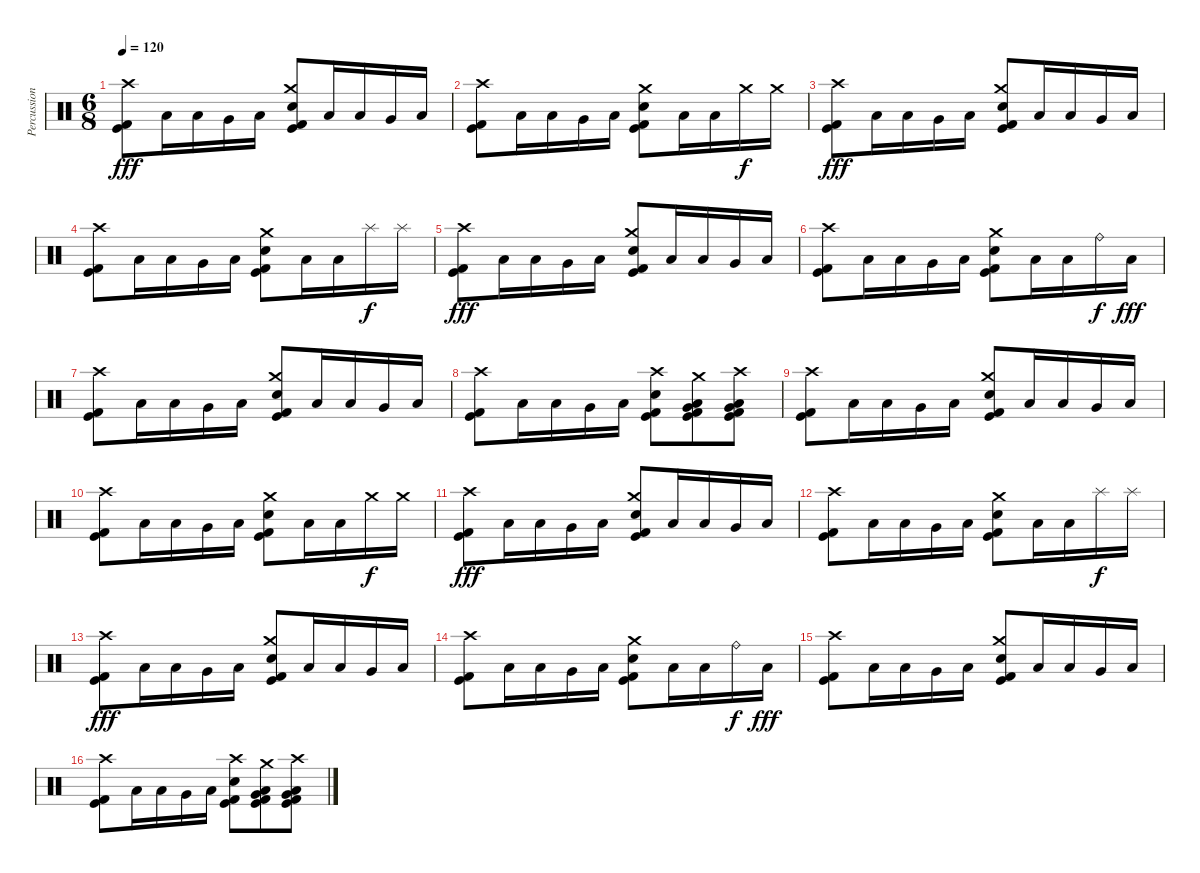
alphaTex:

\track ("Percussion" "Percussion") {instrument percussion}
\staff {score}
\articulation defaults
\ts (6 8)
\tempo 120
\clef neutral
\ks c
("Crash high (hit)" "Kick (hit)" "Kick (hit) 2").8{dy fff} "Low Tom (hit)".16 "Low Tom (hit)".16 "Very Low Tom (hit)".16 "Low Floor Tom (hit)".16 ("Crash medium (hit)" "Electric Snare (hit)" "Kick (hit)" "Kick (hit) 2").8 "Low Tom (hit)".16 "Low Tom (hit)".16 "Very Low Tom (hit)".16 "Low Floor Tom (hit)".16 |
("Crash high (hit)" "Kick (hit)" "Kick (hit) 2").8 "Low Tom (hit)".16 "Low Tom (hit)".16 "Very Low Tom (hit)".16 "Low Floor Tom (hit)".16 ("Crash medium (hit)" "Electric Snare (hit)" "Kick (hit)" "Kick (hit) 2").8 "Low Tom (hit)".16 "Low Tom (hit)".16 "Crash medium (hit)".16{dy f} "Crash medium (hit)".16 |
("Crash high (hit)" "Kick (hit)" "Kick (hit) 2").8{dy fff} "Low Tom (hit)".16 "Low Tom (hit)".16 "Very Low Tom (hit)".16 "Low Floor Tom (hit)".16 ("Crash medium (hit)" "Electric Snare (hit)" "Kick (hit)" "Kick (hit) 2").8 "Low Tom (hit)".16 "Low Tom (hit)".16 "Very Low Tom (hit)".16 "Low Floor Tom (hit)".16 |
("Crash high (hit)" "Kick (hit)" "Kick (hit) 2").8 "Low Tom (hit)".16 "Low Tom (hit)".16 "Very Low Tom (hit)".16 "Low Floor Tom (hit)".16 ("Crash medium (hit)" "Electric Snare (hit)" "Kick (hit)" "Kick (hit) 2").8 "Low Tom (hit)".16 "Low Tom (hit)".16 "Splash (hit)".16{dy f} "Splash (hit)".16 |
("Crash high (hit)" "Kick (hit)" "Kick (hit) 2").8{dy fff} "Low Tom (hit)".16 "Low Tom (hit)".16 "Very Low Tom (hit)".16 "Low Floor Tom (hit)".16 ("Crash medium (hit)" "Electric Snare (hit)" "Kick (hit)" "Kick (hit) 2").8 "Low Tom (hit)".16 "Low Tom (hit)".16 "Very Low Tom (hit)".16 "Low Floor Tom (hit)".16 |
("Crash high (hit)" "Kick (hit)" "Kick (hit) 2").8 "Low Tom (hit)".16 "Low Tom (hit)".16 "Very Low Tom (hit)".16 "Low Floor Tom (hit)".16 ("Crash medium (hit)" "Electric Snare (hit)" "Kick (hit)" "Kick (hit) 2").8 "Low Tom (hit)".16 "Low Tom (hit)".16 "Ride (bell)".16{dy f} "Low Floor Tom (hit)".16{dy fff} |
("Crash high (hit)" "Kick (hit)" "Kick (hit) 2").8 "Low Tom (hit)".16 "Low Tom (hit)".16 "Very Low Tom (hit)".16 "Low Floor Tom (hit)".16 ("Crash medium (hit)" "Electric Snare (hit)" "Kick (hit)" "Kick (hit) 2").8 "Low Tom (hit)".16 "Low Tom (hit)".16 "Very Low Tom (hit)".16 "Low Floor Tom (hit)".16 |
("Crash high (hit)" "Kick (hit)" "Kick (hit) 2").8 "Low Tom (hit)".16 "Low Tom (hit)".16 "Very Low Tom (hit)".16 "Low Floor Tom (hit)".16 ("Crash high (hit)" "Electric Snare (hit)" "Kick (hit)" "Kick (hit) 2").8 ("Crash medium (hit)" "Very Low Tom (hit)" "Low Tom (hit)" "Kick (hit)" "Kick (hit) 2").8 ("Crash high (hit)" "Very Low Tom (hit)" "Low Tom (hit)" "Kick (hit)" "Kick (hit) 2").8 |
("Crash high (hit)" "Kick (hit)" "Kick (hit) 2").8 "Low Tom (hit)".16 "Low Tom (hit)".16 "Very Low Tom (hit)".16 "Low Floor Tom (hit)".16 ("Crash medium (hit)" "Electric Snare (hit)" "Kick (hit)" "Kick (hit) 2").8 "Low Tom (hit)".16 "Low Tom (hit)".16 "Very Low Tom (hit)".16 "Low Floor Tom (hit)".16 |
("Crash high (hit)" "Kick (hit)" "Kick (hit) 2").8 "Low Tom (hit)".16 "Low Tom (hit)".16 "Very Low Tom (hit)".16 "Low Floor Tom (hit)".16 ("Crash medium (hit)" "Electric Snare (hit)" "Kick (hit)" "Kick (hit) 2").8 "Low Tom (hit)".16 "Low Tom (hit)".16 "Crash medium (hit)".16{dy f} "Crash medium (hit)".16 |
("Crash high (hit)" "Kick (hit)" "Kick (hit) 2").8{dy fff} "Low Tom (hit)".16 "Low Tom (hit)".16 "Very Low Tom (hit)".16 "Low Floor Tom (hit)".16 ("Crash medium (hit)" "Electric Snare (hit)" "Kick (hit)" "Kick (hit) 2").8 "Low Tom (hit)".16 "Low Tom (hit)".16 "Very Low Tom (hit)".16 "Low Floor Tom (hit)".16 |
("Crash high (hit)" "Kick (hit)" "Kick (hit) 2").8 "Low Tom (hit)".16 "Low Tom (hit)".16 "Very Low Tom (hit)".16 "Low Floor Tom (hit)".16 ("Crash medium (hit)" "Electric Snare (hit)" "Kick (hit)" "Kick (hit) 2").8 "Low Tom (hit)".16 "Low Tom (hit)".16 "Splash (hit)".16{dy f} "Splash (hit)".16 |
("Crash high (hit)" "Kick (hit)" "Kick (hit) 2").8{dy fff} "Low Tom (hit)".16 "Low Tom (hit)".16 "Very Low Tom (hit)".16 "Low Floor Tom (hit)".16 ("Crash medium (hit)" "Electric Snare (hit)" "Kick (hit)" "Kick (hit) 2").8 "Low Tom (hit)".16 "Low Tom (hit)".16 "Very Low Tom (hit)".16 "Low Floor Tom (hit)".16 |
("Crash high (hit)" "Kick (hit)" "Kick (hit) 2").8 "Low Tom (hit)".16 "Low Tom (hit)".16 "Very Low Tom (hit)".16 "Low Floor Tom (hit)".16 ("Crash medium (hit)" "Electric Snare (hit)" "Kick (hit)" "Kick (hit) 2").8 "Low Tom (hit)".16 "Low Tom (hit)".16 "Ride (bell)".16{dy f} "Low Floor Tom (hit)".16{dy fff} |
("Crash high (hit)" "Kick (hit)" "Kick (hit) 2").8 "Low Tom (hit)".16 "Low Tom (hit)".16 "Very Low Tom (hit)".16 "Low Floor Tom (hit)".16 ("Crash medium (hit)" "Electric Snare (hit)" "Kick (hit)" "Kick (hit) 2").8 "Low Tom (hit)".16 "Low Tom (hit)".16 "Very Low Tom (hit)".16 "Low Floor Tom (hit)".16 |
("Crash high (hit)" "Kick (hit)" "Kick (hit) 2").8 "Low Tom (hit)".16 "Low Tom (hit)".16 "Very Low Tom (hit)".16 "Low Floor Tom (hit)".16 ("Crash high (hit)" "Electric Snare (hit)" "Kick (hit)" "Kick (hit) 2").8 ("Crash medium (hit)" "Very Low Tom (hit)" "Low Tom (hit)" "Kick (hit)" "Kick (hit) 2").8 ("Crash high (hit)" "Very Low Tom (hit)" "Low Tom (hit)" "Kick (hit)" "Kick (hit) 2").8
